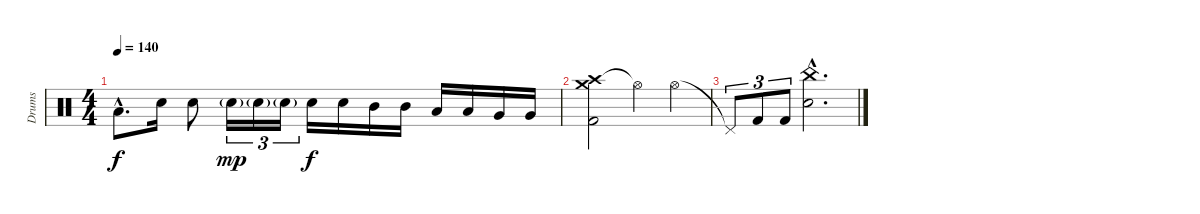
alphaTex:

\track ("Drums" "Drums") {instrument percussion}
\staff {score}
\articulation defaults
\ts (4 4)
\tempo 140
\clef neutral
\ks c "Low Tom (hit)"{hac}.8{d dy f} "Electric Snare (hit)".16 "Electric Snare (hit)".8 "Electric Snare (hit)"{g}.16{tu (3 2) dy mp} "Electric Snare (hit)"{g}.16{tu (3 2)} "Electric Snare (hit)"{g}.16{tu (3 2)} "Electric Snare (hit)".16{dy f} "Electric Snare (hit)".16 "Mid Tom (hit)".16 "Mid Tom (hit)".16 "Low Tom (hit)".16 "Low Tom (hit)".16 "Very Low Tom (hit)".16 "Very Low Tom (hit)".16
|
("Crash high (hit)" "Crash medium (hit)" "Kick (hit) 2").2 "Hi-Hat (open)"{t}.4 "Hi-Hat (open)".4 |
"Pedal Hi-Hat (hit)"{t}.8{tu (3 2)} "Kick (hit) 2".8{tu (3 2)} "Kick (hit) 2".8{tu (3 2)} ("China (hit)"{hac} "Electric Snare (hit)"{hac}).2{d}
